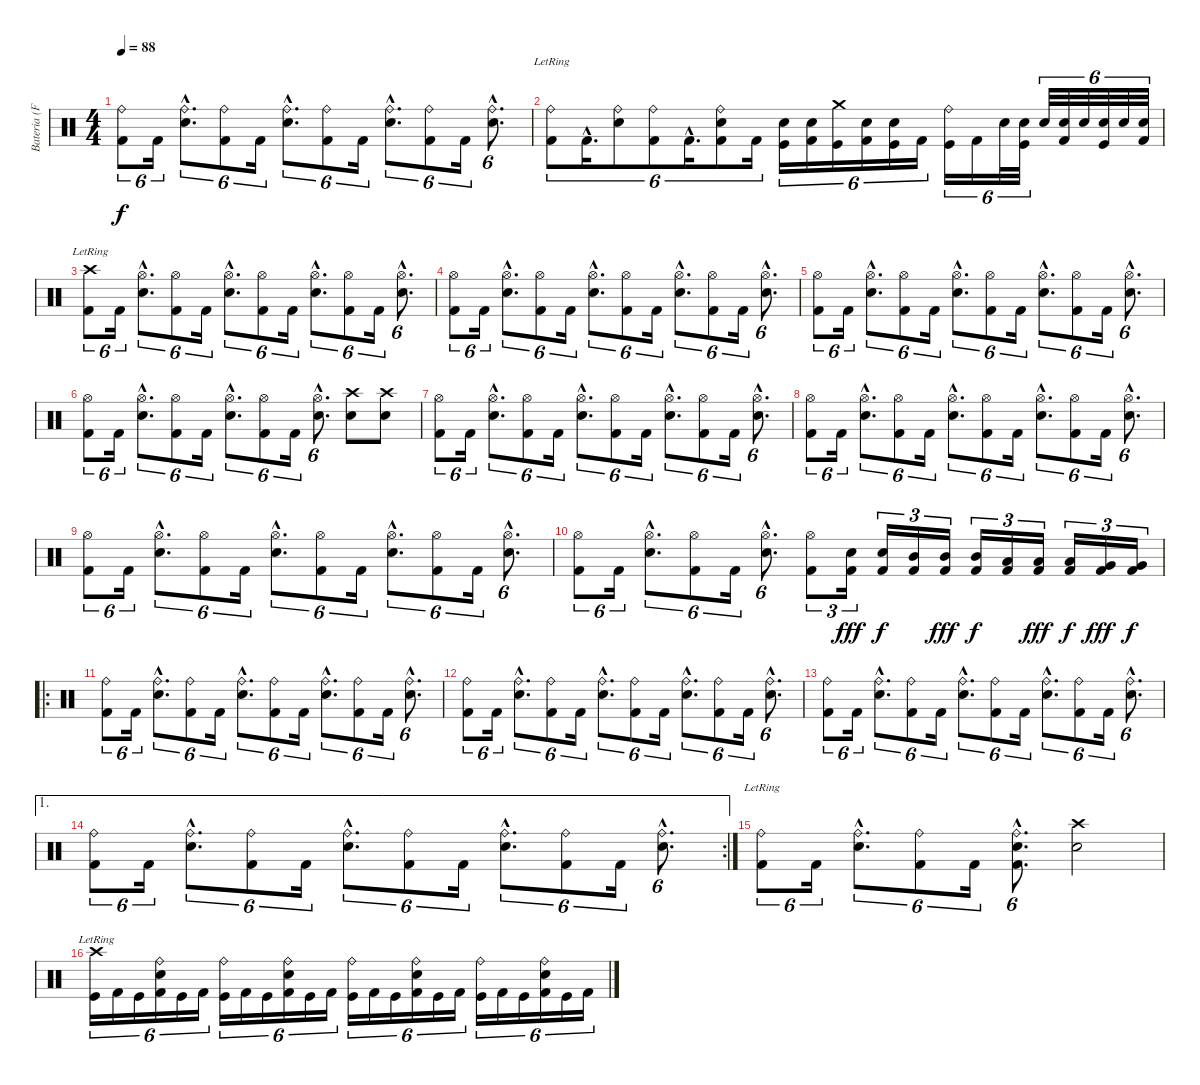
\track ("Bateria (Fernando Scarcella)" "Bateria (F") {instrument percussion}
\staff {score}
\articulation defaults
\ts (4 4)
\tempo 88
\clef neutral
\ks c
("Ride (bell)" "Kick (hit) 2").8{tu (6 4) dy f} "Kick (hit) 2".16{tu (6 4)} ("Ride (bell)"{hac} "Snare (hit) 2"{hac}).8{d tu (6 4)} ("Ride (bell)" "Kick (hit) 2").8{tu (6 4)} "Kick (hit) 2".16{tu (6 4)} ("Ride (bell)"{hac} "Snare (hit) 2"{hac}).8{d tu (6 4)} ("Ride (bell)" "Kick (hit) 2").8{tu (6 4)} "Kick (hit) 2".16{tu (6 4)} ("Ride (bell)"{hac} "Snare (hit) 2"{hac}).8{d tu (6 4)} ("Ride (bell)" "Kick (hit) 2").8{tu (6 4)} "Kick (hit) 2".16{tu (6 4)} ("Ride (bell)"{hac} "Snare (hit) 2"{hac}).8{d tu (6 4)} |
("Ride (bell)"{lr} "Kick (hit) 2").8{tu (6 4)} "Kick (hit) 2"{hac}.16{d tu (6 4)} ("Ride (bell)" "Snare (hit) 2").8{tu (6 4)} ("Ride (bell)" "Kick (hit) 2").8{tu (6 4)} "Kick (hit) 2"{hac}.16{d tu (6 4)} ("Ride (bell)" "Snare (hit) 2" "Kick (hit) 2").8{tu (6 4)} "Kick (hit) 2".16{tu (6 4)} ("Snare (hit) 2" "Kick (hit)").16{tu (6 4)} ("Snare (hit) 2" "Kick (hit) 2").16{tu (6 4)} ("Crash medium (hit)" "Kick (hit)").16{tu (6 4)} ("Snare (hit) 2" "Kick (hit) 2").16{tu (6 4)} ("Snare (hit) 2" "Kick (hit)").16{tu (6 4)} "Kick (hit) 2".16{tu (6 4)} ("Ride (bell)" "Kick (hit)").16{tu (6 4)} "Kick (hit) 2".16{tu (6 4)} "Snare (hit) 2".32{tu (6 4)} ("Snare (hit) 2" "Kick (hit)").32{tu (6 4)} "Snare (hit) 2".32{tu (6 4)} ("Snare (hit) 2" "Kick (hit) 2").32{tu (6 4)} "Snare (hit) 2".32{tu (6 4)} ("Snare (hit) 2" "Kick (hit)").32{tu (6 4)} "Snare (hit) 2".32{tu (6 4)} ("Snare (hit) 2" "Kick (hit) 2").32{tu (6 4)} |
("Crash high (hit)"{lr} "Kick (hit) 2").8{tu (6 4)} "Kick (hit) 2".16{tu (6 4)} ("Hi-Hat (open)"{hac} "Snare (hit) 2"{hac}).8{d tu (6 4)} ("Hi-Hat (open)" "Kick (hit) 2").8{tu (6 4)} "Kick (hit) 2".16{tu (6 4)} ("Hi-Hat (open)"{hac} "Snare (hit) 2"{hac}).8{d tu (6 4)} ("Hi-Hat (open)" "Kick (hit) 2").8{tu (6 4)} "Kick (hit) 2".16{tu (6 4)} ("Hi-Hat (open)"{hac} "Snare (hit) 2"{hac}).8{d tu (6 4)} ("Hi-Hat (open)" "Kick (hit) 2").8{tu (6 4)} "Kick (hit) 2".16{tu (6 4)} ("Hi-Hat (open)"{hac} "Snare (hit) 2"{hac}).8{d tu (6 4)} |
("Hi-Hat (open)" "Kick (hit) 2").8{tu (6 4)} "Kick (hit) 2".16{tu (6 4)} ("Hi-Hat (open)"{hac} "Snare (hit) 2"{hac}).8{d tu (6 4)} ("Hi-Hat (open)" "Kick (hit) 2").8{tu (6 4)} "Kick (hit) 2".16{tu (6 4)} ("Hi-Hat (open)"{hac} "Snare (hit) 2"{hac}).8{d tu (6 4)} ("Hi-Hat (open)" "Kick (hit) 2").8{tu (6 4)} "Kick (hit) 2".16{tu (6 4)} ("Hi-Hat (open)"{hac} "Snare (hit) 2"{hac}).8{d tu (6 4)} ("Hi-Hat (open)" "Kick (hit) 2").8{tu (6 4)} "Kick (hit) 2".16{tu (6 4)} ("Hi-Hat (open)"{hac} "Snare (hit) 2"{hac}).8{d tu (6 4)} |
("Hi-Hat (open)" "Kick (hit) 2").8{tu (6 4)} "Kick (hit) 2".16{tu (6 4)} ("Hi-Hat (open)"{hac} "Snare (hit) 2"{hac}).8{d tu (6 4)} ("Hi-Hat (open)" "Kick (hit) 2").8{tu (6 4)} "Kick (hit) 2".16{tu (6 4)} ("Hi-Hat (open)"{hac} "Snare (hit) 2"{hac}).8{d tu (6 4)} ("Hi-Hat (open)" "Kick (hit) 2").8{tu (6 4)} "Kick (hit) 2".16{tu (6 4)} ("Hi-Hat (open)"{hac} "Snare (hit) 2"{hac}).8{d tu (6 4)} ("Hi-Hat (open)" "Kick (hit) 2").8{tu (6 4)} "Kick (hit) 2".16{tu (6 4)} ("Hi-Hat (open)"{hac} "Snare (hit) 2"{hac}).8{d tu (6 4)} |
("Hi-Hat (open)" "Kick (hit) 2").8{tu (6 4)} "Kick (hit) 2".16{tu (6 4)} ("Hi-Hat (open)"{hac} "Snare (hit) 2"{hac}).8{d tu (6 4)} ("Hi-Hat (open)" "Kick (hit) 2").8{tu (6 4)} "Kick (hit) 2".16{tu (6 4)} ("Hi-Hat (open)"{hac} "Snare (hit) 2"{hac}).8{d tu (6 4)} ("Hi-Hat (open)" "Kick (hit) 2").8{tu (6 4)} "Kick (hit) 2".16{tu (6 4)} ("Hi-Hat (open)"{hac} "Snare (hit) 2"{hac}).8{d tu (6 4)} ("Crash high (hit)" "Snare (hit) 2").8 ("Crash high (hit)" "Snare (hit) 2").8 |
("Hi-Hat (open)" "Kick (hit) 2").8{tu (6 4)} "Kick (hit) 2".16{tu (6 4)} ("Hi-Hat (open)"{hac} "Snare (hit) 2"{hac}).8{d tu (6 4)} ("Hi-Hat (open)" "Kick (hit) 2").8{tu (6 4)} "Kick (hit) 2".16{tu (6 4)} ("Hi-Hat (open)"{hac} "Snare (hit) 2"{hac}).8{d tu (6 4)} ("Hi-Hat (open)" "Kick (hit) 2").8{tu (6 4)} "Kick (hit) 2".16{tu (6 4)} ("Hi-Hat (open)"{hac} "Snare (hit) 2"{hac}).8{d tu (6 4)} ("Hi-Hat (open)" "Kick (hit) 2").8{tu (6 4)} "Kick (hit) 2".16{tu (6 4)} ("Hi-Hat (open)"{hac} "Snare (hit) 2"{hac}).8{d tu (6 4)} |
("Hi-Hat (open)" "Kick (hit) 2").8{tu (6 4)} "Kick (hit) 2".16{tu (6 4)} ("Hi-Hat (open)"{hac} "Snare (hit) 2"{hac}).8{d tu (6 4)} ("Hi-Hat (open)" "Kick (hit) 2").8{tu (6 4)} "Kick (hit) 2".16{tu (6 4)} ("Hi-Hat (open)"{hac} "Snare (hit) 2"{hac}).8{d tu (6 4)} ("Hi-Hat (open)" "Kick (hit) 2").8{tu (6 4)} "Kick (hit) 2".16{tu (6 4)} ("Hi-Hat (open)"{hac} "Snare (hit) 2"{hac}).8{d tu (6 4)} ("Hi-Hat (open)" "Kick (hit) 2").8{tu (6 4)} "Kick (hit) 2".16{tu (6 4)} ("Hi-Hat (open)"{hac} "Snare (hit) 2"{hac}).8{d tu (6 4)} |
("Hi-Hat (open)" "Kick (hit) 2").8{tu (6 4)} "Kick (hit) 2".16{tu (6 4)} ("Hi-Hat (open)"{hac} "Snare (hit) 2"{hac}).8{d tu (6 4)} ("Hi-Hat (open)" "Kick (hit) 2").8{tu (6 4)} "Kick (hit) 2".16{tu (6 4)} ("Hi-Hat (open)"{hac} "Snare (hit) 2"{hac}).8{d tu (6 4)} ("Hi-Hat (open)" "Kick (hit) 2").8{tu (6 4)} "Kick (hit) 2".16{tu (6 4)} ("Hi-Hat (open)"{hac} "Snare (hit) 2"{hac}).8{d tu (6 4)} ("Hi-Hat (open)" "Kick (hit) 2").8{tu (6 4)} "Kick (hit) 2".16{tu (6 4)} ("Hi-Hat (open)"{hac} "Snare (hit) 2"{hac}).8{d tu (6 4)} |
("Hi-Hat (open)" "Kick (hit) 2").8{tu (6 4)} "Kick (hit) 2".16{tu (6 4)} ("Hi-Hat (open)"{hac} "Snare (hit) 2"{hac}).8{d tu (6 4)} ("Hi-Hat (open)" "Kick (hit) 2").8{tu (6 4)} "Kick (hit) 2".16{tu (6 4)} ("Hi-Hat (open)"{hac} "Snare (hit) 2"{hac}).8{d tu (6 4)} ("Hi-Hat (open)" "Kick (hit) 2").8{tu (3 2)} ("Snare (hit) 2" "Kick (hit) 2").16{tu (3 2) dy fff} ("Snare (hit) 2" "Kick (hit) 2").16{tu (3 2) dy f} ("Mid Tom (hit)" "Kick (hit) 2").16{tu (3 2)} ("Mid Tom (hit)" "Kick (hit) 2").16{tu (3 2) dy fff} ("Mid Tom (hit)" "Kick (hit) 2").16{tu (3 2) dy f} ("Low Tom (hit)" "Kick (hit) 2").16{tu (3 2)} ("Low Tom (hit)" "Kick (hit) 2").16{tu (3 2) dy fff} ("Low Tom (hit)" "Kick (hit) 2").16{tu (3 2) dy f} ("Very Low Tom (hit)" "Kick (hit) 2").16{tu (3 2) dy fff} ("Very Low Tom (hit)" "Kick (hit) 2").16{tu (3 2) dy f} |
\ro
("Ride (bell)" "Kick (hit) 2").8{tu (6 4)} "Kick (hit) 2".16{tu (6 4)} ("Ride (bell)"{hac} "Snare (hit) 2"{hac}).8{d tu (6 4)} ("Ride (bell)" "Kick (hit) 2").8{tu (6 4)} "Kick (hit) 2".16{tu (6 4)} ("Ride (bell)"{hac} "Snare (hit) 2"{hac}).8{d tu (6 4)} ("Ride (bell)" "Kick (hit) 2").8{tu (6 4)} "Kick (hit) 2".16{tu (6 4)} ("Ride (bell)"{hac} "Snare (hit) 2"{hac}).8{d tu (6 4)} ("Ride (bell)" "Kick (hit) 2").8{tu (6 4)} "Kick (hit) 2".16{tu (6 4)} ("Ride (bell)"{hac} "Snare (hit) 2"{hac}).8{d tu (6 4)} |
("Ride (bell)" "Kick (hit) 2").8{tu (6 4)} "Kick (hit) 2".16{tu (6 4)} ("Ride (bell)"{hac} "Snare (hit) 2"{hac}).8{d tu (6 4)} ("Ride (bell)" "Kick (hit) 2").8{tu (6 4)} "Kick (hit) 2".16{tu (6 4)} ("Ride (bell)"{hac} "Snare (hit) 2"{hac}).8{d tu (6 4)} ("Ride (bell)" "Kick (hit) 2").8{tu (6 4)} "Kick (hit) 2".16{tu (6 4)} ("Ride (bell)"{hac} "Snare (hit) 2"{hac}).8{d tu (6 4)} ("Ride (bell)" "Kick (hit) 2").8{tu (6 4)} "Kick (hit) 2".16{tu (6 4)} ("Ride (bell)"{hac} "Snare (hit) 2"{hac}).8{d tu (6 4)} |
("Ride (bell)" "Kick (hit) 2").8{tu (6 4)} "Kick (hit) 2".16{tu (6 4)} ("Ride (bell)"{hac} "Snare (hit) 2"{hac}).8{d tu (6 4)} ("Ride (bell)" "Kick (hit) 2").8{tu (6 4)} "Kick (hit) 2".16{tu (6 4)} ("Ride (bell)"{hac} "Snare (hit) 2"{hac}).8{d tu (6 4)} ("Ride (bell)" "Kick (hit) 2").8{tu (6 4)} "Kick (hit) 2".16{tu (6 4)} ("Ride (bell)"{hac} "Snare (hit) 2"{hac}).8{d tu (6 4)} ("Ride (bell)" "Kick (hit) 2").8{tu (6 4)} "Kick (hit) 2".16{tu (6 4)} ("Ride (bell)"{hac} "Snare (hit) 2"{hac}).8{d tu (6 4)} |
\ae 1
\rc 2
("Ride (bell)" "Kick (hit) 2").8{tu (6 4)} "Kick (hit) 2".16{tu (6 4)} ("Ride (bell)"{hac} "Snare (hit) 2"{hac}).8{d tu (6 4)} ("Ride (bell)" "Kick (hit) 2").8{tu (6 4)} "Kick (hit) 2".16{tu (6 4)} ("Ride (bell)"{hac} "Snare (hit) 2"{hac}).8{d tu (6 4)} ("Ride (bell)" "Kick (hit) 2").8{tu (6 4)} "Kick (hit) 2".16{tu (6 4)} ("Ride (bell)"{hac} "Snare (hit) 2"{hac}).8{d tu (6 4)} ("Ride (bell)" "Kick (hit) 2").8{tu (6 4)} "Kick (hit) 2".16{tu (6 4)} ("Ride (bell)"{hac} "Snare (hit) 2"{hac}).8{d tu (6 4)} |
("Ride (bell)"{lr} "Kick (hit) 2").8{tu (6 4)} "Kick (hit) 2".16{tu (6 4)} ("Ride (bell)"{hac} "Snare (hit) 2"{hac}).8{d tu (6 4)} ("Ride (bell)" "Kick (hit) 2").8{tu (6 4)} "Kick (hit) 2".16{tu (6 4)} ("Ride (bell)"{hac} "Snare (hit) 2"{hac} "Kick (hit) 2"{hac}).8{d tu (6 4)} ("Crash high (hit)" "Snare (hit) 2").2 |
("Crash high (hit)"{lr} "Kick (hit)").16{tu (6 4)} "Kick (hit) 2".16{tu (6 4)} "Kick (hit)".16{tu (6 4)} ("Ride (bell)" "Snare (hit) 2" "Kick (hit) 2").16{tu (6 4)} "Kick (hit)".16{tu (6 4)} "Kick (hit) 2".16{tu (6 4)} ("Ride (bell)" "Kick (hit)").16{tu (6 4)} "Kick (hit) 2".16{tu (6 4)} "Kick (hit)".16{tu (6 4)} ("Ride (bell)" "Snare (hit) 2" "Kick (hit) 2").16{tu (6 4)} "Kick (hit)".16{tu (6 4)} "Kick (hit) 2".16{tu (6 4)} ("Ride (bell)" "Kick (hit)").16{tu (6 4)} "Kick (hit) 2".16{tu (6 4)} "Kick (hit)".16{tu (6 4)} ("Ride (bell)" "Snare (hit) 2" "Kick (hit) 2").16{tu (6 4)} "Kick (hit)".16{tu (6 4)} "Kick (hit) 2".16{tu (6 4)} ("Ride (bell)" "Kick (hit)").16{tu (6 4)} "Kick (hit) 2".16{tu (6 4)} "Kick (hit)".16{tu (6 4)} ("Ride (bell)" "Snare (hit) 2" "Kick (hit) 2").16{tu (6 4)} "Kick (hit)".16{tu (6 4)} "Kick (hit) 2".16{tu (6 4)}
